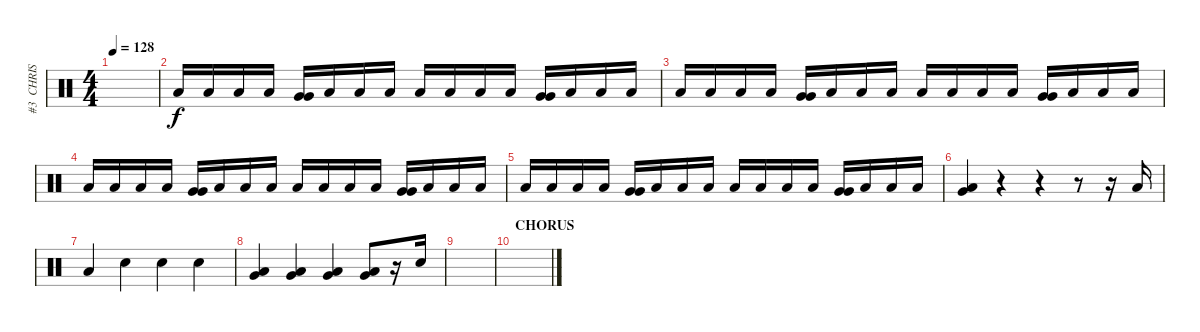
\track ("#3  CHRIS FEHN" "#3  CHRIS ") {instrument percussion}
\staff {score}
\articulation defaults
\ts (4 4)
\tempo 128
\clef neutral
\ks c
|
"Low Floor Tom (hit)".16 "Low Floor Tom (hit)".16 "Low Floor Tom (hit)".16 "Low Floor Tom (hit)".16 ("Very Low Tom (hit)" "Very Low Tom (hit)").16 "Low Floor Tom (hit)".16 "Low Floor Tom (hit)".16 "Low Floor Tom (hit)".16 "Low Floor Tom (hit)".16 "Low Floor Tom (hit)".16 "Low Floor Tom (hit)".16 "Low Floor Tom (hit)".16 ("Very Low Tom (hit)" "Very Low Tom (hit)").16 "Low Floor Tom (hit)".16 "Low Floor Tom (hit)".16 "Low Floor Tom (hit)".16 |
"Low Floor Tom (hit)".16 "Low Floor Tom (hit)".16 "Low Floor Tom (hit)".16 "Low Floor Tom (hit)".16 ("Very Low Tom (hit)" "Very Low Tom (hit)").16 "Low Floor Tom (hit)".16 "Low Floor Tom (hit)".16 "Low Floor Tom (hit)".16 "Low Floor Tom (hit)".16 "Low Floor Tom (hit)".16 "Low Floor Tom (hit)".16 "Low Floor Tom (hit)".16 ("Very Low Tom (hit)" "Very Low Tom (hit)").16 "Low Floor Tom (hit)".16 "Low Floor Tom (hit)".16 "Low Floor Tom (hit)".16 |
"Low Floor Tom (hit)".16 "Low Floor Tom (hit)".16 "Low Floor Tom (hit)".16 "Low Floor Tom (hit)".16 ("Very Low Tom (hit)" "Very Low Tom (hit)").16 "Low Floor Tom (hit)".16 "Low Floor Tom (hit)".16 "Low Floor Tom (hit)".16 "Low Floor Tom (hit)".16 "Low Floor Tom (hit)".16 "Low Floor Tom (hit)".16 "Low Floor Tom (hit)".16 ("Very Low Tom (hit)" "Very Low Tom (hit)").16 "Low Floor Tom (hit)".16 "Low Floor Tom (hit)".16 "Low Floor Tom (hit)".16 |
"Low Floor Tom (hit)".16 "Low Floor Tom (hit)".16 "Low Floor Tom (hit)".16 "Low Floor Tom (hit)".16 ("Very Low Tom (hit)" "Very Low Tom (hit)").16 "Low Floor Tom (hit)".16 "Low Floor Tom (hit)".16 "Low Floor Tom (hit)".16 "Low Floor Tom (hit)".16 "Low Floor Tom (hit)".16 "Low Floor Tom (hit)".16 "Low Floor Tom (hit)".16 ("Very Low Tom (hit)" "Very Low Tom (hit)").16 "Low Floor Tom (hit)".16 "Low Floor Tom (hit)".16 "Low Floor Tom (hit)".16 |
\section ("" "")
("Very Low Tom (hit)" "Low Floor Tom (hit)").4 r.4 r.4 r.8 r.16 "Low Tom (hit)".16 |
"Low Floor Tom (hit)".4 "Snare (hit)"{x}.4 "Snare (hit)"{x}.4 "Snare (hit)"{x}.4 |
("Very Low Tom (hit)" "Low Floor Tom (hit)").4 ("Very Low Tom (hit)" "Low Floor Tom (hit)").4 ("Very Low Tom (hit)" "Low Floor Tom (hit)").4 ("Very Low Tom (hit)" "Low Floor Tom (hit)").8 r.16 "Snare (hit)"{x}.16 |
|
\section ("" "CHORUS")
